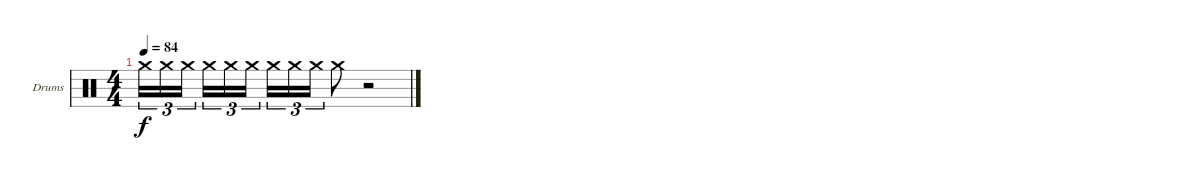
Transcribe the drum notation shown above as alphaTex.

\bracketExtendMode groupsimilarinstruments
\firstSystemTrackNameOrientation horizontal
\otherSystemsTrackNameOrientation horizontal
\track ("Drumkit" "Drums") {instrument percussion}
\staff {score}
\articulation defaults
\ts (4 4)
\tempo 84
\clef neutral
\ks c "Crash medium (hit)".16{tu (3 2) dy f} "Crash medium (hit)".16{tu (3 2)} "Crash medium (hit)".16{tu (3 2)} "Crash medium (hit)".16{tu (3 2)} "Crash medium (hit)".16{tu (3 2)} "Crash medium (hit)".16{tu (3 2)} "Crash medium (hit)".16{tu (3 2)} "Crash medium (hit)".16{tu (3 2)} "Crash medium (hit)".16{tu (3 2)} "Crash medium (hit)".8
r.2
